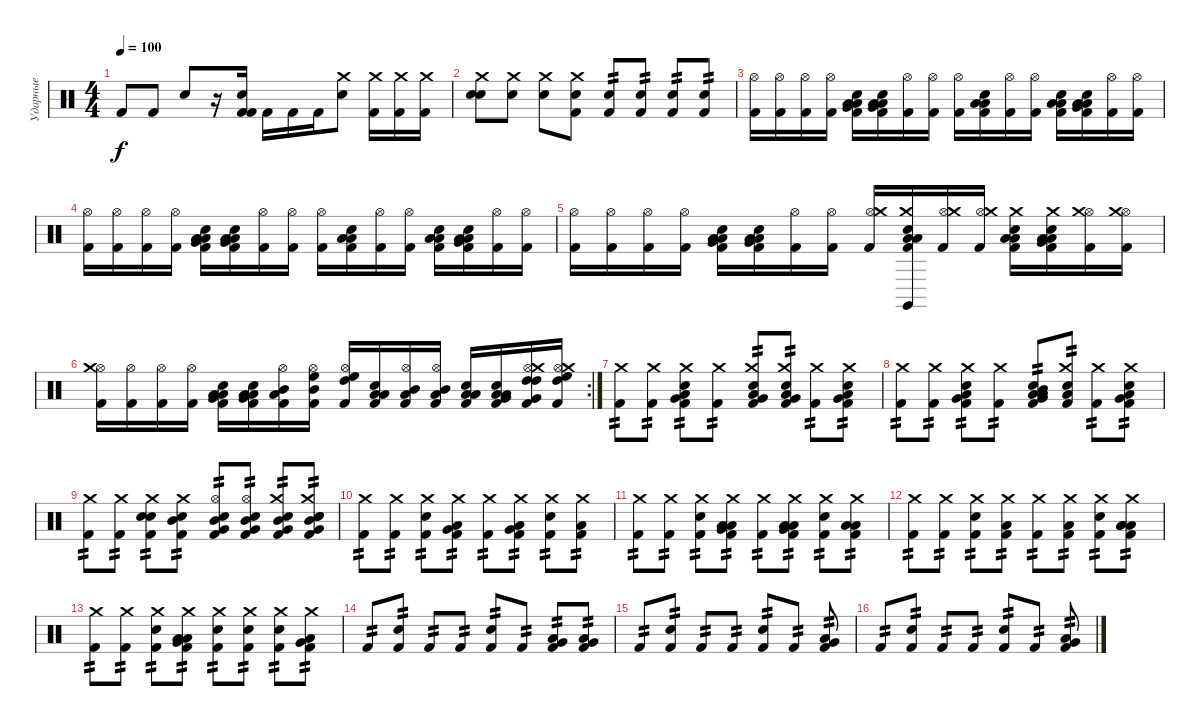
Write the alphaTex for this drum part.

\track ("Ударные" "Ударные") {instrument percussion}
\staff {score}
\articulation defaults
\ts (4 4)
\tempo 100
\clef neutral
\ks c "Kick (hit) 2".8{dy f} "Kick (hit) 2".8 "Snare (hit) 2".8
r.16 ("Kick (hit) 2" "Kick (hit) 2" "Snare (hit) 2").16 "Kick (hit) 2".16 "Kick (hit) 2".16 "Kick (hit) 2".16 ("Snare (hit) 2" "Crash medium (hit)").8 ("Crash medium (hit)" "Kick (hit) 2").16 ("Crash medium (hit)" "Kick (hit) 2").16 ("Crash medium (hit)" "Kick (hit) 2").16 |
("Snare (hit) 2" "Snare (hit) 2" "Crash medium (hit)").8 ("Snare (hit) 2" "Crash medium (hit)").8 ("Snare (hit) 2" "Crash medium (hit)").8 ("Snare (hit) 2" "Crash medium (hit)" "Kick (hit) 2").8 ("Snare (hit) 2" "Kick (hit) 2").8{tp 2} ("Snare (hit) 2" "Kick (hit) 2").8{tp 2} ("Snare (hit) 2" "Kick (hit) 2").8{tp 2} ("Snare (hit) 2" "Kick (hit) 2").8{tp 2} |
("Hi-Hat (open)" "Kick (hit) 2").16 ("Hi-Hat (open)" "Kick (hit) 2").16 ("Hi-Hat (open)" "Kick (hit) 2").16 ("Hi-Hat (open)" "Kick (hit) 2").16 ("Low Floor Tom (hit)" "Very Low Tom (hit)" "Kick (hit) 2" "Low Tom (hit)" "Snare (hit) 2").16 ("Low Floor Tom (hit)" "Very Low Tom (hit)" "Kick (hit) 2" "Low Tom (hit)" "Snare (hit) 2").16 ("Hi-Hat (open)" "Kick (hit) 2").16 ("Hi-Hat (open)" "Kick (hit) 2").16 ("Hi-Hat (open)" "Kick (hit) 2").16 ("Low Floor Tom (hit)" "Low Tom (hit)" "Kick (hit) 2" "Snare (hit) 2").16 ("Hi-Hat (open)" "Kick (hit) 2").16 ("Hi-Hat (open)" "Kick (hit) 2").16 ("Low Floor Tom (hit)" "Low Tom (hit)" "Kick (hit) 2" "Snare (hit) 2").16 ("Low Floor Tom (hit)" "Very Low Tom (hit)" "Kick (hit) 2" "Low Tom (hit)" "Snare (hit) 2").16 ("Hi-Hat (open)" "Kick (hit) 2").16 ("Hi-Hat (open)" "Kick (hit) 2").16 |
("Hi-Hat (open)" "Kick (hit) 2").16 ("Hi-Hat (open)" "Kick (hit) 2").16 ("Hi-Hat (open)" "Kick (hit) 2").16 ("Hi-Hat (open)" "Kick (hit) 2").16 ("Low Floor Tom (hit)" "Very Low Tom (hit)" "Kick (hit) 2" "Low Tom (hit)" "Snare (hit) 2").16 ("Low Floor Tom (hit)" "Very Low Tom (hit)" "Kick (hit) 2" "Low Tom (hit)" "Snare (hit) 2").16 ("Hi-Hat (open)" "Kick (hit) 2").16 ("Hi-Hat (open)" "Kick (hit) 2").16 ("Hi-Hat (open)" "Kick (hit) 2").16 ("Low Floor Tom (hit)" "Low Tom (hit)" "Kick (hit) 2" "Snare (hit) 2").16 ("Hi-Hat (open)" "Kick (hit) 2").16 ("Hi-Hat (open)" "Kick (hit) 2").16 ("Low Floor Tom (hit)" "Low Tom (hit)" "Kick (hit) 2" "Snare (hit) 2").16 ("Low Floor Tom (hit)" "Very Low Tom (hit)" "Kick (hit) 2" "Low Tom (hit)" "Snare (hit) 2").16 ("Hi-Hat (open)" "Kick (hit) 2").16 ("Hi-Hat (open)" "Kick (hit) 2").16 |
("Hi-Hat (open)" "Kick (hit) 2").16 ("Hi-Hat (open)" "Kick (hit) 2").16 ("Hi-Hat (open)" "Kick (hit) 2").16 ("Hi-Hat (open)" "Kick (hit) 2").16 ("Low Floor Tom (hit)" "Very Low Tom (hit)" "Kick (hit) 2" "Low Tom (hit)" "Snare (hit) 2").16 ("Low Floor Tom (hit)" "Very Low Tom (hit)" "Kick (hit) 2" "Low Tom (hit)" "Snare (hit) 2").16 ("Hi-Hat (open)" "Kick (hit) 2").16 ("Hi-Hat (open)" "Kick (hit) 2").16 ("Hi-Hat (open)" "Crash medium (hit)" "Kick (hit) 2").16 ("Low Floor Tom (hit)" "Low Tom (hit)" "Kick (hit) 2" "Snare (hit) 2" "Crash medium (hit)" "Claves (hit)").16 ("Hi-Hat (open)" "Crash medium (hit)" "Kick (hit) 2").16 ("Hi-Hat (open)" "Crash medium (hit)" "Kick (hit) 2").16 ("Low Floor Tom (hit)" "Low Tom (hit)" "Kick (hit) 2" "Snare (hit) 2" "Crash medium (hit)").16 ("Low Floor Tom (hit)" "Very Low Tom (hit)" "Kick (hit) 2" "Low Tom (hit)" "Snare (hit) 2" "Crash medium (hit)").16 ("Hi-Hat (open)" "Crash medium (hit)" "Kick (hit) 2").16 ("Hi-Hat (open)" "Crash medium (hit)" "Kick (hit) 2").16 |
\rc 2
("Hi-Hat (open)" "Crash medium (hit)" "Kick (hit) 2").16 ("Hi-Hat (open)" "Kick (hit) 2").16 ("Hi-Hat (open)" "Kick (hit) 2").16 ("Hi-Hat (open)" "Kick (hit) 2").16 ("Low Floor Tom (hit)" "Very Low Tom (hit)" "Kick (hit) 2" "Low Tom (hit)" "Snare (hit) 2").16 ("Low Floor Tom (hit)" "Very Low Tom (hit)" "Kick (hit) 2" "Low Tom (hit)" "Snare (hit) 2").16 ("Hi-Hat (open)" "Low Tom (hit)" "Kick (hit) 2" "Mid Tom (hit)").16 ("Hi-Hat (open)" "Mid Tom (hit)" "Kick (hit) 2" "High Floor Tom (hit)").16 ("Hi-Hat (open)" "High Tom (hit)" "Kick (hit) 2" "High Floor Tom (hit)").16 ("Low Floor Tom (hit)" "Low Tom (hit)" "Kick (hit) 2" "Snare (hit) 2").16 ("Hi-Hat (open)" "Low Tom (hit)" "Kick (hit) 2" "Mid Tom (hit)").16 ("Hi-Hat (open)" "Low Tom (hit)" "Kick (hit) 2" "Mid Tom (hit)").16 ("Low Floor Tom (hit)" "Low Tom (hit)" "Kick (hit) 2" "Snare (hit) 2").16 ("Low Floor Tom (hit)" "Very Low Tom (hit)" "Kick (hit) 2" "Low Tom (hit)" "Snare (hit) 2").16 ("Hi-Hat (open)" "High Tom (hit)" "Kick (hit) 2" "High Tom (hit)" "Very Low Tom (hit)" "Crash medium (hit)").16 ("Hi-Hat (open)" "High Floor Tom (hit)" "Kick (hit) 2" "High Tom (hit)" "Crash medium (hit)").16 |
("Kick (hit) 2" "Crash medium (hit)").8{tp 2} ("Kick (hit) 2" "Crash medium (hit)").8{tp 2} ("Kick (hit) 2" "Snare (hit) 2" "Low Floor Tom (hit)" "Very Low Tom (hit)" "Crash medium (hit)").8{tp 2} ("Kick (hit) 2" "Crash medium (hit)").8{tp 2} ("Kick (hit) 2" "Snare (hit) 2" "Low Floor Tom (hit)" "Very Low Tom (hit)" "Crash medium (hit)").8{tp 2} ("Kick (hit) 2" "Snare (hit) 2" "Low Floor Tom (hit)" "Very Low Tom (hit)" "Crash medium (hit)").8{tp 2} ("Kick (hit) 2" "Crash medium (hit)").8{tp 2} ("Kick (hit) 2" "Snare (hit) 2" "Low Floor Tom (hit)" "Very Low Tom (hit)" "Crash medium (hit)").8{tp 2} |
("Kick (hit) 2" "Crash medium (hit)").8{tp 2} ("Kick (hit) 2" "Crash medium (hit)").8{tp 2} ("Kick (hit) 2" "Snare (hit) 2" "Low Floor Tom (hit)" "Very Low Tom (hit)" "Crash medium (hit)").8{tp 2} ("Kick (hit) 2" "Crash medium (hit)").8{tp 2} ("Kick (hit) 2" "Snare (hit) 2" "Low Floor Tom (hit)" "Very Low Tom (hit)" "Low Tom (hit)" "Mid Tom (hit)").8{tp 2} ("Kick (hit) 2" "Snare (hit) 2" "Low Tom (hit)" "Crash medium (hit)").8{tp 2} ("Kick (hit) 2" "Crash medium (hit)").8{tp 2} ("Kick (hit) 2" "Snare (hit) 2" "Low Floor Tom (hit)" "Very Low Tom (hit)" "Crash medium (hit)").8{tp 2} |
("Kick (hit) 2" "Crash medium (hit)").8{tp 2} ("Kick (hit) 2" "Crash medium (hit)").8{tp 2} ("Kick (hit) 2" "Snare (hit) 2" "Snare (hit) 2" "Crash medium (hit)").8{tp 2} ("Kick (hit) 2" "Snare (hit) 2" "Mid Tom (hit)" "Crash medium (hit)").8{tp 2} ("Kick (hit) 2" "Hi-Hat (open)" "Snare (hit) 2" "Very Low Tom (hit)" "Mid Tom (hit)").8{tp 2} ("Kick (hit) 2" "Hi-Hat (open)" "Snare (hit) 2" "Very Low Tom (hit)" "Mid Tom (hit)").8{tp 2} ("Kick (hit) 2" "Snare (hit) 2" "Very Low Tom (hit)" "Mid Tom (hit)" "Crash medium (hit)").8{tp 2} ("Kick (hit) 2" "Snare (hit) 2" "Snare (hit) 2" "Very Low Tom (hit)" "Mid Tom (hit)" "Crash medium (hit)").8{tp 2} |
("Kick (hit) 2" "Crash medium (hit)").8{tp 2} ("Kick (hit) 2" "Crash medium (hit)").8{tp 2} ("Kick (hit) 2" "Snare (hit) 2" "Crash medium (hit)").8{tp 2} ("Kick (hit) 2" "Low Floor Tom (hit)" "Very Low Tom (hit)" "Crash medium (hit)").8{tp 2} ("Kick (hit) 2" "Crash medium (hit)").8{tp 2} ("Kick (hit) 2" "Very Low Tom (hit)" "Low Tom (hit)" "Crash medium (hit)").8{tp 2} ("Kick (hit) 2" "Snare (hit) 2" "Crash medium (hit)").8{tp 2} ("Kick (hit) 2" "Low Tom (hit)" "Crash medium (hit)").8{tp 2} |
("Kick (hit) 2" "Crash medium (hit)").8{tp 2} ("Kick (hit) 2" "Crash medium (hit)").8{tp 2} ("Kick (hit) 2" "Snare (hit) 2" "Crash medium (hit)").8{tp 2} ("Kick (hit) 2" "Low Floor Tom (hit)" "Very Low Tom (hit)" "Low Tom (hit)" "Crash medium (hit)").8{tp 2} ("Kick (hit) 2" "Crash medium (hit)").8{tp 2} ("Kick (hit) 2" "Low Floor Tom (hit)" "Very Low Tom (hit)" "Low Tom (hit)" "Crash medium (hit)").8{tp 2} ("Kick (hit) 2" "Snare (hit) 2" "Crash medium (hit)").8{tp 2} ("Kick (hit) 2" "Low Tom (hit)" "Low Tom (hit)" "Crash medium (hit)").8{tp 2} |
("Kick (hit) 2" "Crash medium (hit)").8{tp 2} ("Kick (hit) 2" "Crash medium (hit)").8{tp 2} ("Kick (hit) 2" "Snare (hit) 2" "Crash medium (hit)").8{tp 2} ("Kick (hit) 2" "Low Tom (hit)" "Crash medium (hit)").8{tp 2} ("Kick (hit) 2" "Crash medium (hit)").8{tp 2} ("Kick (hit) 2" "Low Tom (hit)" "Crash medium (hit)").8{tp 2} ("Kick (hit) 2" "Snare (hit) 2" "Crash medium (hit)").8{tp 2} ("Kick (hit) 2" "Low Floor Tom (hit)" "Low Tom (hit)" "Low Tom (hit)" "Crash medium (hit)").8{tp 2} |
("Kick (hit) 2" "Crash medium (hit)").8{tp 2} ("Kick (hit) 2" "Crash medium (hit)").8{tp 2} ("Kick (hit) 2" "Snare (hit) 2" "Crash medium (hit)").8{tp 2} ("Kick (hit) 2" "Low Floor Tom (hit)" "Very Low Tom (hit)" "Low Tom (hit)" "Crash medium (hit)").8{tp 2} ("Kick (hit) 2" "Snare (hit) 2" "Crash medium (hit)").8{tp 2} ("Kick (hit) 2" "Snare (hit) 2" "Crash medium (hit)").8{tp 2} ("Kick (hit) 2" "Snare (hit) 2" "Crash medium (hit)").8{tp 2} ("Kick (hit) 2" "Low Floor Tom (hit)" "Very Low Tom (hit)" "Crash medium (hit)").8{tp 2} |
"Kick (hit) 2".8{tp 2} ("Kick (hit) 2" "Snare (hit) 2").8{tp 2} "Kick (hit) 2".8{tp 2} "Kick (hit) 2".8{tp 2} ("Kick (hit) 2" "Snare (hit) 2").8{tp 2} "Kick (hit) 2".8{tp 2} ("Kick (hit) 2" "Very Low Tom (hit)" "Low Tom (hit)").8{tp 2} ("Kick (hit) 2" "Very Low Tom (hit)" "Low Floor Tom (hit)").8{tp 2} |
"Kick (hit) 2".8{tp 2} ("Kick (hit) 2" "Snare (hit) 2").8{tp 2} "Kick (hit) 2".8{tp 2} "Kick (hit) 2".8{tp 2} ("Kick (hit) 2" "Snare (hit) 2").8{tp 2} "Kick (hit) 2".8{tp 2} ("Kick (hit) 2" "Very Low Tom (hit)" "Low Tom (hit)").8{tp 2} |
"Kick (hit) 2".8{tp 2} ("Kick (hit) 2" "Snare (hit) 2").8{tp 2} "Kick (hit) 2".8{tp 2} "Kick (hit) 2".8{tp 2} ("Kick (hit) 2" "Snare (hit) 2").8{tp 2} "Kick (hit) 2".8{tp 2} ("Kick (hit) 2" "Very Low Tom (hit)" "Low Tom (hit)").8{tp 2}
